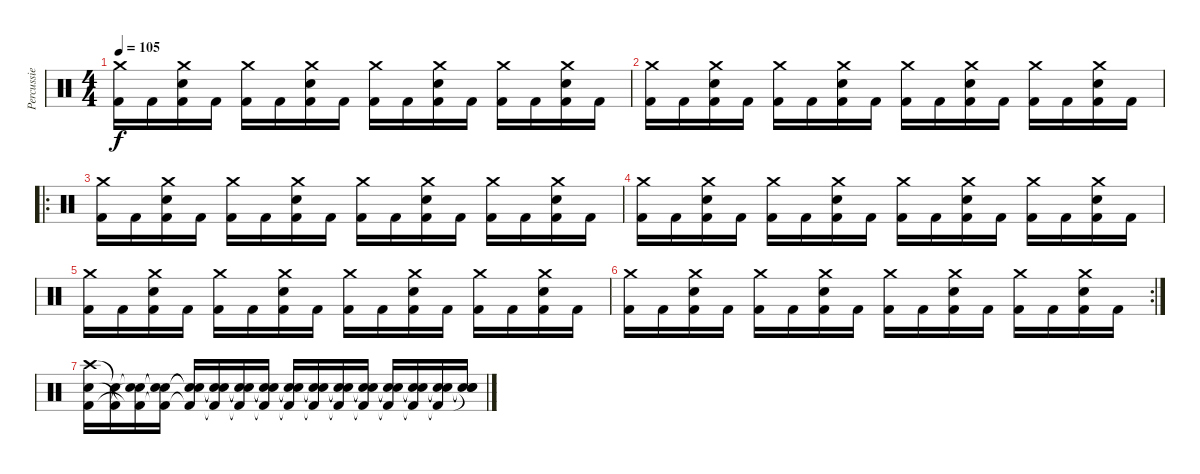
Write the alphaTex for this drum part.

\track ("Percussie" "Percussie") {instrument percussion}
\staff {score}
\articulation defaults
\ts (4 4)
\tempo 105
\clef neutral
\ks c
("Crash medium (hit)" "Kick (hit) 2").16{dy f} "Kick (hit) 2".16 ("Crash medium (hit)" "Electric Snare (hit)" "Kick (hit) 2").16 "Kick (hit) 2".16 ("Crash medium (hit)" "Kick (hit) 2").16 "Kick (hit) 2".16 ("Crash medium (hit)" "Electric Snare (hit)" "Kick (hit) 2").16 "Kick (hit) 2".16 ("Crash medium (hit)" "Kick (hit) 2").16 "Kick (hit) 2".16 ("Crash medium (hit)" "Electric Snare (hit)" "Kick (hit) 2").16 "Kick (hit) 2".16 ("Crash medium (hit)" "Kick (hit) 2").16 "Kick (hit) 2".16 ("Crash medium (hit)" "Electric Snare (hit)" "Kick (hit) 2").16 "Kick (hit) 2".16 |
("Crash medium (hit)" "Kick (hit) 2").16 "Kick (hit) 2".16 ("Crash medium (hit)" "Electric Snare (hit)" "Kick (hit) 2").16 "Kick (hit) 2".16 ("Crash medium (hit)" "Kick (hit) 2").16 "Kick (hit) 2".16 ("Crash medium (hit)" "Electric Snare (hit)" "Kick (hit) 2").16 "Kick (hit) 2".16 ("Crash medium (hit)" "Kick (hit) 2").16 "Kick (hit) 2".16 ("Crash medium (hit)" "Electric Snare (hit)" "Kick (hit) 2").16 "Kick (hit) 2".16 ("Crash medium (hit)" "Kick (hit) 2").16 "Kick (hit) 2".16 ("Crash medium (hit)" "Electric Snare (hit)" "Kick (hit) 2").16 "Kick (hit) 2".16 |
\ro
("Crash medium (hit)" "Kick (hit) 2").16 "Kick (hit) 2".16 ("Crash medium (hit)" "Electric Snare (hit)" "Kick (hit) 2").16 "Kick (hit) 2".16 ("Crash medium (hit)" "Kick (hit) 2").16 "Kick (hit) 2".16 ("Crash medium (hit)" "Electric Snare (hit)" "Kick (hit) 2").16 "Kick (hit) 2".16 ("Crash medium (hit)" "Kick (hit) 2").16 "Kick (hit) 2".16 ("Crash medium (hit)" "Electric Snare (hit)" "Kick (hit) 2").16 "Kick (hit) 2".16 ("Crash medium (hit)" "Kick (hit) 2").16 "Kick (hit) 2".16 ("Crash medium (hit)" "Electric Snare (hit)" "Kick (hit) 2").16 "Kick (hit) 2".16 |
("Crash medium (hit)" "Kick (hit) 2").16 "Kick (hit) 2".16 ("Crash medium (hit)" "Electric Snare (hit)" "Kick (hit) 2").16 "Kick (hit) 2".16 ("Crash medium (hit)" "Kick (hit) 2").16 "Kick (hit) 2".16 ("Crash medium (hit)" "Electric Snare (hit)" "Kick (hit) 2").16 "Kick (hit) 2".16 ("Crash medium (hit)" "Kick (hit) 2").16 "Kick (hit) 2".16 ("Crash medium (hit)" "Electric Snare (hit)" "Kick (hit) 2").16 "Kick (hit) 2".16 ("Crash medium (hit)" "Kick (hit) 2").16 "Kick (hit) 2".16 ("Crash medium (hit)" "Electric Snare (hit)" "Kick (hit) 2").16 "Kick (hit) 2".16 |
("Crash medium (hit)" "Kick (hit) 2").16 "Kick (hit) 2".16 ("Crash medium (hit)" "Electric Snare (hit)" "Kick (hit) 2").16 "Kick (hit) 2".16 ("Crash medium (hit)" "Kick (hit) 2").16 "Kick (hit) 2".16 ("Crash medium (hit)" "Electric Snare (hit)" "Kick (hit) 2").16 "Kick (hit) 2".16 ("Crash medium (hit)" "Kick (hit) 2").16 "Kick (hit) 2".16 ("Crash medium (hit)" "Electric Snare (hit)" "Kick (hit) 2").16 "Kick (hit) 2".16 ("Crash medium (hit)" "Kick (hit) 2").16 "Kick (hit) 2".16 ("Crash medium (hit)" "Electric Snare (hit)" "Kick (hit) 2").16 "Kick (hit) 2".16 |
\rc 2
("Crash medium (hit)" "Kick (hit) 2").16 "Kick (hit) 2".16 ("Crash medium (hit)" "Electric Snare (hit)" "Kick (hit) 2").16 "Kick (hit) 2".16 ("Crash medium (hit)" "Kick (hit) 2").16 "Kick (hit) 2".16 ("Crash medium (hit)" "Electric Snare (hit)" "Kick (hit) 2").16 "Kick (hit) 2".16 ("Crash medium (hit)" "Kick (hit) 2").16 "Kick (hit) 2".16 ("Crash medium (hit)" "Electric Snare (hit)" "Kick (hit) 2").16 "Kick (hit) 2".16 ("Crash medium (hit)" "Kick (hit) 2").16 "Kick (hit) 2".16 ("Crash medium (hit)" "Electric Snare (hit)" "Kick (hit) 2").16 "Kick (hit) 2".16 |
("Crash high (hit)" "Electric Snare (hit)" "Kick (hit) 2").16 ("Snare (hit)"{t} "Kick (hit) 2"{t}).16 ("Snare (hit)"{t} "Snare (hit)"{t} "Kick (hit) 2"{t}).16 ("Snare (hit)"{t} "Snare (hit)"{t} "Kick (hit) 2"{t}).16 ("Snare (hit)"{t} "Snare (hit)"{t} "Kick (hit) 2"{t}).16 ("Snare (hit)"{t} "Snare (hit)"{t} "Kick (hit) 2"{t}).16 ("Snare (hit)"{t} "Snare (hit)"{t} "Kick (hit) 2"{t}).16 ("Snare (hit)"{t} "Snare (hit)"{t} "Kick (hit) 2"{t}).16 ("Snare (hit)"{t} "Snare (hit)"{t} "Kick (hit) 2"{t}).16 ("Snare (hit)"{t} "Snare (hit)"{t} "Kick (hit) 2"{t}).16 ("Snare (hit)"{t} "Snare (hit)"{t} "Kick (hit) 2"{t}).16 ("Snare (hit)"{t} "Snare (hit)"{t} "Kick (hit) 2"{t}).16 ("Snare (hit)"{t} "Snare (hit)"{t} "Kick (hit) 2"{t}).16 ("Snare (hit)"{t} "Snare (hit)"{t} "Kick (hit) 2"{t}).16 ("Snare (hit)"{t} "Snare (hit)"{t} "Kick (hit) 2"{t}).16 ("Snare (hit)"{t} "Snare (hit)"{t} "Snare (hit)"{t}).16
